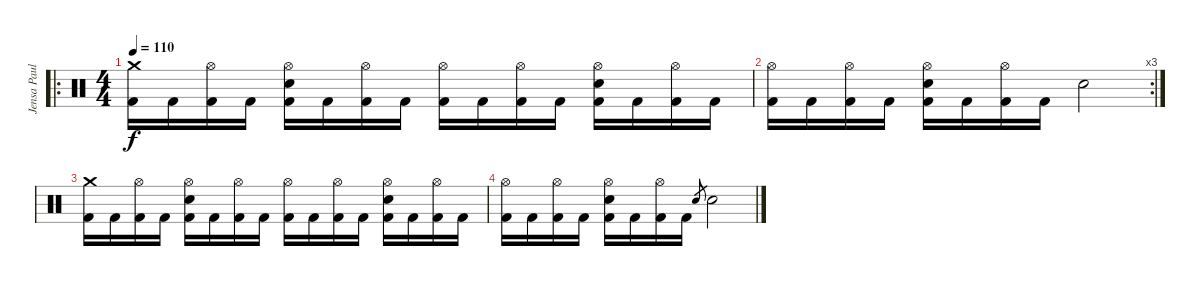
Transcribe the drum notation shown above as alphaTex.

\track ("Jensa Paulsson (Drums)" "Jensa Paul") {instrument percussion}
\staff {score}
\articulation defaults
\ro
\ts (4 4)
\tempo 110
\clef neutral
\ks c
("Crash medium (hit)" "Kick (hit) 2").16{dy f} "Kick (hit) 2".16 ("Hi-Hat (open)" "Kick (hit) 2").16 "Kick (hit) 2".16 ("Hi-Hat (open)" "Electric Snare (hit)" "Kick (hit) 2").16 "Kick (hit) 2".16 ("Hi-Hat (open)" "Kick (hit) 2").16 "Kick (hit) 2".16 ("Hi-Hat (open)" "Kick (hit) 2").16 "Kick (hit) 2".16 ("Hi-Hat (open)" "Kick (hit) 2").16 "Kick (hit) 2".16 ("Hi-Hat (open)" "Electric Snare (hit)" "Kick (hit) 2").16 "Kick (hit) 2".16 ("Hi-Hat (open)" "Kick (hit) 2").16 "Kick (hit) 2".16 |
\rc 3
("Hi-Hat (open)" "Kick (hit) 2").16 "Kick (hit) 2".16 ("Hi-Hat (open)" "Kick (hit) 2").16 "Kick (hit) 2".16 ("Hi-Hat (open)" "Electric Snare (hit)" "Kick (hit) 2").16 "Kick (hit) 2".16 ("Hi-Hat (open)" "Kick (hit) 2").16 "Kick (hit) 2".16 "Electric Snare (hit)".2 |
("Crash medium (hit)" "Kick (hit) 2").16 "Kick (hit) 2".16 ("Hi-Hat (open)" "Kick (hit) 2").16 "Kick (hit) 2".16 ("Hi-Hat (open)" "Electric Snare (hit)" "Kick (hit) 2").16 "Kick (hit) 2".16 ("Hi-Hat (open)" "Kick (hit) 2").16 "Kick (hit) 2".16 ("Hi-Hat (open)" "Kick (hit) 2").16 "Kick (hit) 2".16 ("Hi-Hat (open)" "Kick (hit) 2").16 "Kick (hit) 2".16 ("Hi-Hat (open)" "Electric Snare (hit)" "Kick (hit) 2").16 "Kick (hit) 2".16 ("Hi-Hat (open)" "Kick (hit) 2").16 "Kick (hit) 2".16 |
("Hi-Hat (open)" "Kick (hit) 2").16 "Kick (hit) 2".16 ("Hi-Hat (open)" "Kick (hit) 2").16 "Kick (hit) 2".16 ("Hi-Hat (open)" "Electric Snare (hit)" "Kick (hit) 2").16 "Kick (hit) 2".16 ("Hi-Hat (open)" "Kick (hit) 2").16 "Kick (hit) 2".16 "Electric Snare (hit)".8{gr} "Electric Snare (hit)".2
